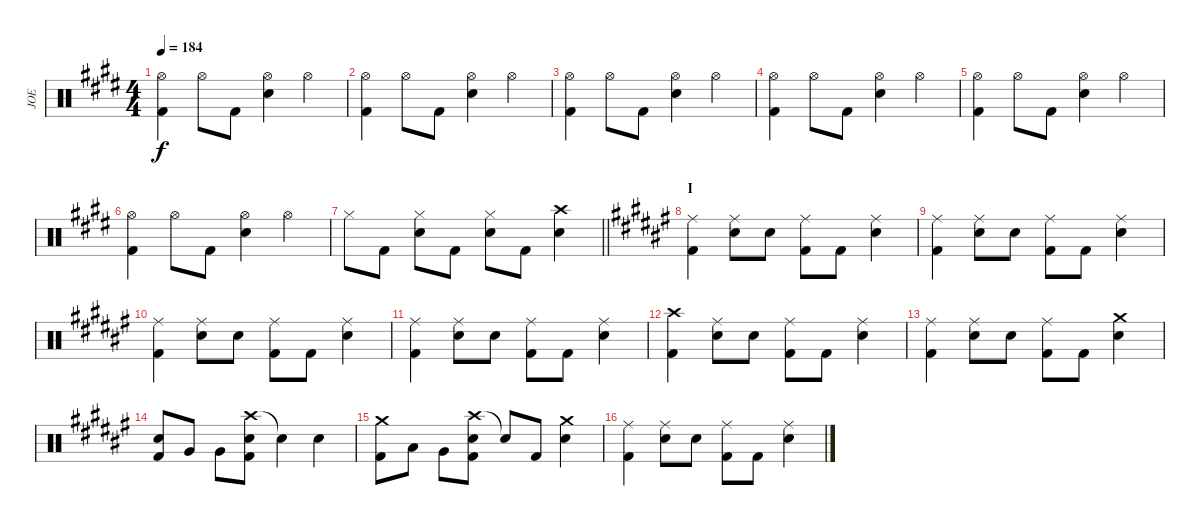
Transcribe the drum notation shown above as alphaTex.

\track ("JOE" "JOE") {instrument percussion}
\staff {score}
\articulation defaults
\ts (4 4)
\tempo 184
\clef neutral
\ks e
("Hi-Hat (open)" "Kick (hit) 2").4{dy f} "Hi-Hat (open)".8 "Kick (hit) 2".8 ("Hi-Hat (open)" "Snare (hit) 2").4 "Hi-Hat (open)".4 |
("Hi-Hat (open)" "Kick (hit) 2").4 "Hi-Hat (open)".8 "Kick (hit) 2".8 ("Hi-Hat (open)" "Snare (hit) 2").4 "Hi-Hat (open)".4 |
("Hi-Hat (open)" "Kick (hit) 2").4 "Hi-Hat (open)".8 "Kick (hit) 2".8 ("Hi-Hat (open)" "Snare (hit) 2").4 "Hi-Hat (open)".4 |
("Hi-Hat (open)" "Kick (hit) 2").4 "Hi-Hat (open)".8 "Kick (hit) 2".8 ("Hi-Hat (open)" "Snare (hit) 2").4 "Hi-Hat (open)".4 |
("Hi-Hat (open)" "Kick (hit) 2").4 "Hi-Hat (open)".8 "Kick (hit) 2".8 ("Hi-Hat (open)" "Snare (hit) 2").4 "Hi-Hat (open)".4 |
("Hi-Hat (open)" "Kick (hit) 2").4 "Hi-Hat (open)".8 "Kick (hit) 2".8 ("Hi-Hat (open)" "Snare (hit) 2").4 "Hi-Hat (open)".4 |
\barLineRight lightlight "Hi-Hat (closed)".8 "Kick (hit) 2".8
("Hi-Hat (closed)" "Snare (hit) 2").8 "Kick (hit) 2".8 ("Hi-Hat (closed)" "Snare (hit) 2").8 "Kick (hit) 2".8 ("Crash high (hit)" "Snare (hit) 2").4 |
\section ("" "I")
\ks f#
("Ride (middle)" "Kick (hit) 2").4 ("Ride (middle)" "Snare (hit) 2").8 "Snare (hit) 2".8 ("Ride (middle)" "Kick (hit) 2").8 "Kick (hit) 2".8 ("Ride (middle)" "Snare (hit) 2").4 |
("Ride (middle)" "Kick (hit) 2").4 ("Ride (middle)" "Snare (hit) 2").8 "Snare (hit) 2".8 ("Ride (middle)" "Kick (hit) 2").8 "Kick (hit) 2".8 ("Ride (middle)" "Snare (hit) 2").4 |
("Ride (middle)" "Kick (hit) 2").4 ("Ride (middle)" "Snare (hit) 2").8 "Snare (hit) 2".8 ("Ride (middle)" "Kick (hit) 2").8 "Kick (hit) 2".8 ("Ride (middle)" "Snare (hit) 2").4 |
("Ride (middle)" "Kick (hit) 2").4 ("Ride (middle)" "Snare (hit) 2").8 "Snare (hit) 2".8 ("Ride (middle)" "Kick (hit) 2").8 "Kick (hit) 2".8 ("Ride (middle)" "Snare (hit) 2").4 |
("Crash high (hit)" "Kick (hit) 2").4 ("Ride (middle)" "Snare (hit) 2").8 "Snare (hit) 2".8 ("Ride (middle)" "Kick (hit) 2").8 "Kick (hit) 2".8 ("Ride (middle)" "Snare (hit) 2").4 |
("Ride (middle)" "Kick (hit) 2").4 ("Ride (middle)" "Snare (hit) 2").8 "Snare (hit) 2".8 ("Ride (middle)" "Kick (hit) 2").8 "Kick (hit) 2".8 ("Crash medium (hit)" "Snare (hit) 2").4 |
("Snare (hit) 2" "Kick (hit) 2").8 "Very Low Tom (hit)".8 "Very Low Tom (hit)".8 ("Crash high (hit)" "Snare (hit) 2" "Kick (hit) 2").8 "Snare (hit)"{t}.4 "Snare (hit) 2".4 |
("Crash medium (hit)" "Kick (hit) 2").8 "Low Tom (hit)".8 "Very Low Tom (hit)".8 ("Crash high (hit)" "Snare (hit) 2" "Kick (hit) 2").8 "Snare (hit)"{t}.8 "Kick (hit) 2".8 ("Crash medium (hit)" "Snare (hit) 2").4 |
("Ride (middle)" "Kick (hit) 2").4 ("Ride (middle)" "Snare (hit) 2").8 "Snare (hit) 2".8 ("Ride (middle)" "Kick (hit) 2").8 "Kick (hit) 2".8 ("Ride (middle)" "Snare (hit) 2").4
